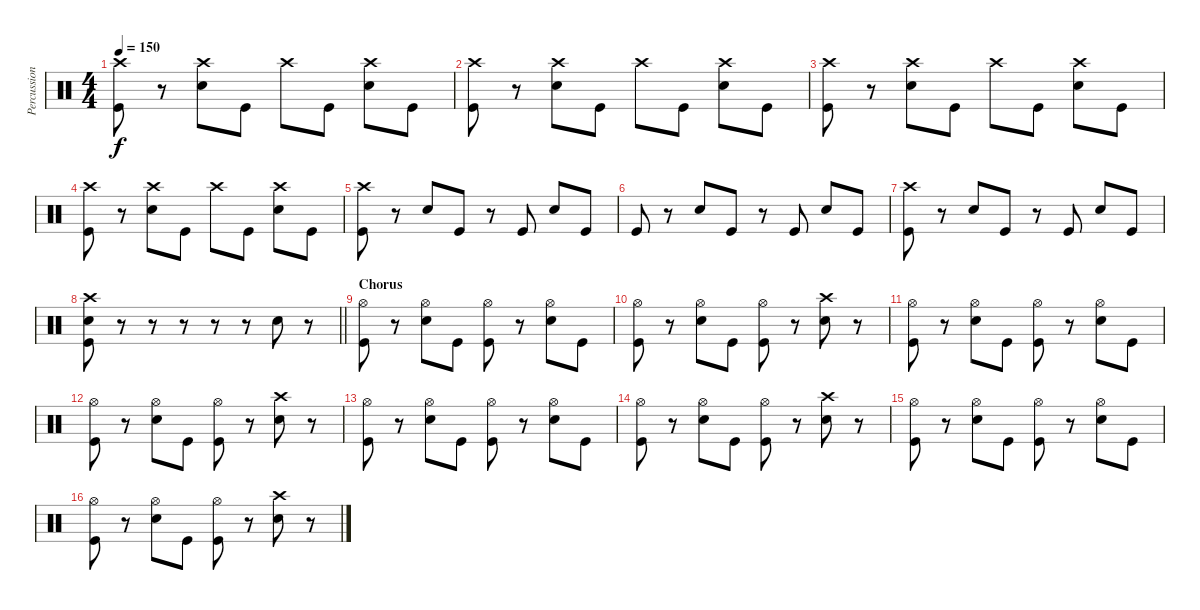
\track ("Percussion" "Percussion") {instrument percussion}
\staff
\articulation defaults
\ts (4 4)
\tempo 150
\clef neutral
\ks c
("Crash high (hit)" "Kick (hit)").8{dy f} r.8 ("Crash high (hit)" "Electric Snare (hit)").8 "Kick (hit)".8 "Crash high (hit)".8 "Kick (hit)".8 ("Crash high (hit)" "Electric Snare (hit)").8 "Kick (hit)".8 |
("Crash high (hit)" "Kick (hit)").8 r.8 ("Crash high (hit)" "Electric Snare (hit)").8 "Kick (hit)".8 "Crash high (hit)".8 "Kick (hit)".8 ("Crash high (hit)" "Electric Snare (hit)").8 "Kick (hit)".8 |
("Crash high (hit)" "Kick (hit)").8 r.8 ("Crash high (hit)" "Electric Snare (hit)").8 "Kick (hit)".8 "Crash high (hit)".8 "Kick (hit)".8 ("Crash high (hit)" "Electric Snare (hit)").8 "Kick (hit)".8 |
("Crash high (hit)" "Kick (hit)").8 r.8 ("Crash high (hit)" "Electric Snare (hit)").8 "Kick (hit)".8 "Crash high (hit)".8 "Kick (hit)".8 ("Crash high (hit)" "Electric Snare (hit)").8 "Kick (hit)".8 |
("Crash high (hit)" "Kick (hit)").8 r.8 "Electric Snare (hit)".8 "Kick (hit)".8 r.8 "Kick (hit)".8 "Electric Snare (hit)".8 "Kick (hit)".8 |
"Kick (hit)".8 r.8 "Electric Snare (hit)".8 "Kick (hit)".8 r.8 "Kick (hit)".8 "Electric Snare (hit)".8 "Kick (hit)".8 |
("Crash high (hit)" "Kick (hit)").8 r.8 "Electric Snare (hit)".8 "Kick (hit)".8 r.8 "Kick (hit)".8 "Electric Snare (hit)".8 "Kick (hit)".8 |
\barLineRight lightlight
("Crash high (hit)" "Electric Snare (hit)" "Kick (hit)").8 r.8 r.8 r.8 r.8 r.8 "Electric Snare (hit)".8 r.8 |
\section ("" "Chorus")
("Hi-Hat (open)" "Kick (hit)").8 r.8 ("Hi-Hat (open)" "Electric Snare (hit)").8 "Kick (hit)".8 ("Hi-Hat (open)" "Kick (hit)").8 r.8 ("Hi-Hat (open)" "Electric Snare (hit)").8 "Kick (hit)".8 |
("Hi-Hat (open)" "Kick (hit)").8 r.8 ("Hi-Hat (open)" "Electric Snare (hit)").8 "Kick (hit)".8 ("Hi-Hat (open)" "Kick (hit)").8 r.8 ("Crash high (hit)" "Electric Snare (hit)").8 r.8 |
("Hi-Hat (open)" "Kick (hit)").8 r.8 ("Hi-Hat (open)" "Electric Snare (hit)").8 "Kick (hit)".8 ("Hi-Hat (open)" "Kick (hit)").8 r.8 ("Hi-Hat (open)" "Electric Snare (hit)").8 "Kick (hit)".8 |
("Hi-Hat (open)" "Kick (hit)").8 r.8 ("Hi-Hat (open)" "Electric Snare (hit)").8 "Kick (hit)".8 ("Hi-Hat (open)" "Kick (hit)").8 r.8 ("Crash high (hit)" "Electric Snare (hit)").8 r.8 |
("Hi-Hat (open)" "Kick (hit)").8 r.8 ("Hi-Hat (open)" "Electric Snare (hit)").8 "Kick (hit)".8 ("Hi-Hat (open)" "Kick (hit)").8 r.8 ("Hi-Hat (open)" "Electric Snare (hit)").8 "Kick (hit)".8 |
("Hi-Hat (open)" "Kick (hit)").8 r.8 ("Hi-Hat (open)" "Electric Snare (hit)").8 "Kick (hit)".8 ("Hi-Hat (open)" "Kick (hit)").8 r.8 ("Crash high (hit)" "Electric Snare (hit)").8 r.8 |
("Hi-Hat (open)" "Kick (hit)").8 r.8 ("Hi-Hat (open)" "Electric Snare (hit)").8 "Kick (hit)".8 ("Hi-Hat (open)" "Kick (hit)").8 r.8 ("Hi-Hat (open)" "Electric Snare (hit)").8 "Kick (hit)".8 |
("Hi-Hat (open)" "Kick (hit)").8 r.8 ("Hi-Hat (open)" "Electric Snare (hit)").8 "Kick (hit)".8 ("Hi-Hat (open)" "Kick (hit)").8 r.8 ("Crash high (hit)" "Electric Snare (hit)").8 r.8
